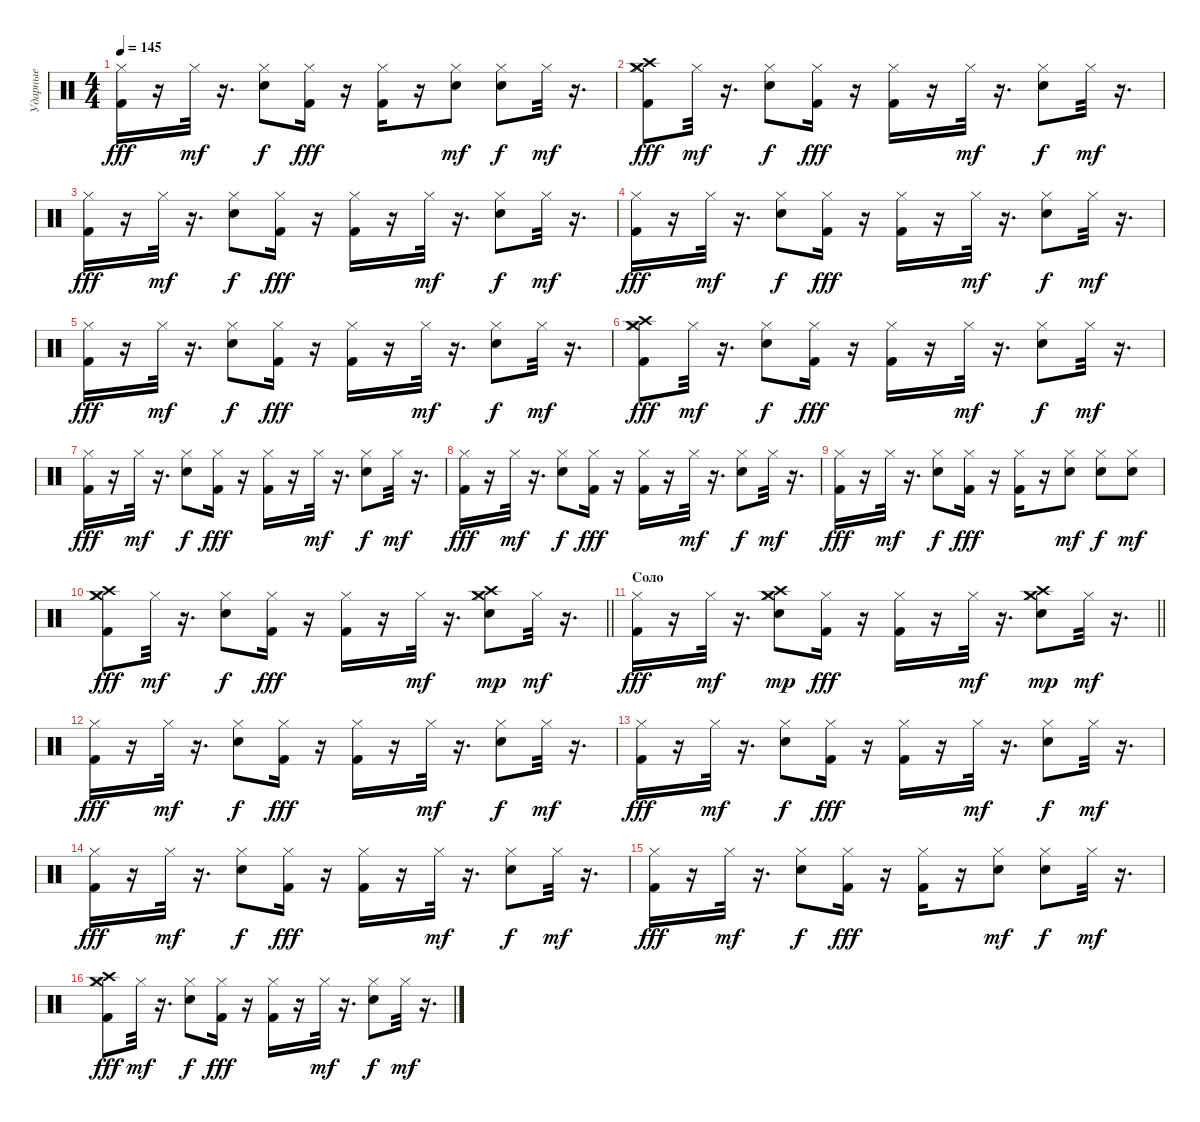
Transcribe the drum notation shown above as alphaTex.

\track ("Ударные" "Ударные") {instrument percussion}
\staff {score}
\articulation defaults
\ts (4 4)
\tempo 145
\clef neutral
\ks c
("Hi-Hat (closed)" "Kick (hit) 2").16{dy fff} r.16 "Hi-Hat (closed)".32{dy mf} r.16{d} ("Snare (hit) 2" "Hi-Hat (closed)").8{dy f} ("Hi-Hat (closed)" "Kick (hit) 2").16{dy fff} r.16 ("Hi-Hat (closed)" "Kick (hit) 2").16 r.16 ("Snare (hit) 2" "Hi-Hat (closed)").8{dy mf} ("Snare (hit) 2" "Hi-Hat (closed)").8{dy f} "Hi-Hat (closed)".32{dy mf} r.16{d} |
("Hi-Hat (closed)" "Crash high (hit)" "Crash medium (hit)" "Kick (hit) 2").8{dy fff} "Hi-Hat (closed)".32{dy mf} r.16{d} ("Snare (hit) 2" "Hi-Hat (closed)").8{dy f} ("Hi-Hat (closed)" "Kick (hit) 2").16{dy fff} r.16 ("Hi-Hat (closed)" "Kick (hit) 2").16 r.16 "Hi-Hat (closed)".32{dy mf} r.16{d} ("Snare (hit) 2" "Hi-Hat (closed)").8{dy f} "Hi-Hat (closed)".32{dy mf} r.16{d} |
("Hi-Hat (closed)" "Kick (hit) 2").16{dy fff} r.16 "Hi-Hat (closed)".32{dy mf} r.16{d} ("Snare (hit) 2" "Hi-Hat (closed)").8{dy f} ("Hi-Hat (closed)" "Kick (hit) 2").16{dy fff} r.16 ("Hi-Hat (closed)" "Kick (hit) 2").16 r.16 "Hi-Hat (closed)".32{dy mf} r.16{d} ("Snare (hit) 2" "Hi-Hat (closed)").8{dy f} "Hi-Hat (closed)".32{dy mf} r.16{d} |
("Hi-Hat (closed)" "Kick (hit) 2").16{dy fff} r.16 "Hi-Hat (closed)".32{dy mf} r.16{d} ("Snare (hit) 2" "Hi-Hat (closed)").8{dy f} ("Hi-Hat (closed)" "Kick (hit) 2").16{dy fff} r.16 ("Hi-Hat (closed)" "Kick (hit) 2").16 r.16 "Hi-Hat (closed)".32{dy mf} r.16{d} ("Snare (hit) 2" "Hi-Hat (closed)").8{dy f} "Hi-Hat (closed)".32{dy mf} r.16{d} |
("Hi-Hat (closed)" "Kick (hit) 2").16{dy fff} r.16 "Hi-Hat (closed)".32{dy mf} r.16{d} ("Snare (hit) 2" "Hi-Hat (closed)").8{dy f} ("Hi-Hat (closed)" "Kick (hit) 2").16{dy fff} r.16 ("Hi-Hat (closed)" "Kick (hit) 2").16 r.16 "Hi-Hat (closed)".32{dy mf} r.16{d} ("Snare (hit) 2" "Hi-Hat (closed)").8{dy f} "Hi-Hat (closed)".32{dy mf} r.16{d} |
("Hi-Hat (closed)" "Crash high (hit)" "Crash medium (hit)" "Kick (hit) 2").8{dy fff} "Hi-Hat (closed)".32{dy mf} r.16{d} ("Snare (hit) 2" "Hi-Hat (closed)").8{dy f} ("Hi-Hat (closed)" "Kick (hit) 2").16{dy fff} r.16 ("Hi-Hat (closed)" "Kick (hit) 2").16 r.16 "Hi-Hat (closed)".32{dy mf} r.16{d} ("Snare (hit) 2" "Hi-Hat (closed)").8{dy f} "Hi-Hat (closed)".32{dy mf} r.16{d} |
("Hi-Hat (closed)" "Kick (hit) 2").16{dy fff} r.16 "Hi-Hat (closed)".32{dy mf} r.16{d} ("Snare (hit) 2" "Hi-Hat (closed)").8{dy f} ("Hi-Hat (closed)" "Kick (hit) 2").16{dy fff} r.16 ("Hi-Hat (closed)" "Kick (hit) 2").16 r.16 "Hi-Hat (closed)".32{dy mf} r.16{d} ("Snare (hit) 2" "Hi-Hat (closed)").8{dy f} "Hi-Hat (closed)".32{dy mf} r.16{d} |
("Hi-Hat (closed)" "Kick (hit) 2").16{dy fff} r.16 "Hi-Hat (closed)".32{dy mf} r.16{d} ("Snare (hit) 2" "Hi-Hat (closed)").8{dy f} ("Hi-Hat (closed)" "Kick (hit) 2").16{dy fff} r.16 ("Hi-Hat (closed)" "Kick (hit) 2").16 r.16 "Hi-Hat (closed)".32{dy mf} r.16{d} ("Snare (hit) 2" "Hi-Hat (closed)").8{dy f} "Hi-Hat (closed)".32{dy mf} r.16{d} |
("Hi-Hat (closed)" "Kick (hit) 2").16{dy fff} r.16 "Hi-Hat (closed)".32{dy mf} r.16{d} ("Snare (hit) 2" "Hi-Hat (closed)").8{dy f} ("Hi-Hat (closed)" "Kick (hit) 2").16{dy fff} r.16 ("Hi-Hat (closed)" "Kick (hit) 2").16 r.16 ("Snare (hit) 2" "Hi-Hat (closed)").8{dy mf} ("Snare (hit) 2" "Hi-Hat (closed)").8{dy f} ("Snare (hit) 2" "Hi-Hat (closed)").8{dy mf} |
\barLineRight lightlight
("Hi-Hat (closed)" "Crash high (hit)" "Crash medium (hit)" "Kick (hit) 2").8{dy fff} "Hi-Hat (closed)".32{dy mf} r.16{d} ("Snare (hit) 2" "Hi-Hat (closed)").8{dy f} ("Hi-Hat (closed)" "Kick (hit) 2").16{dy fff} r.16 ("Hi-Hat (closed)" "Kick (hit) 2").16 r.16 "Hi-Hat (closed)".32{dy mf} r.16{d} ("Snare (hit) 2" "Hi-Hat (closed)" "Crash high (hit)" "Crash medium (hit)").8{dy mp} "Hi-Hat (closed)".32{dy mf} r.16{d} |
\section ("" "Соло")
\barLineRight lightlight
("Hi-Hat (closed)" "Kick (hit) 2").16{dy fff} r.16 "Hi-Hat (closed)".32{dy mf} r.16{d} ("Snare (hit) 2" "Hi-Hat (closed)" "Crash high (hit)" "Crash medium (hit)").8{dy mp} ("Hi-Hat (closed)" "Kick (hit) 2").16{dy fff} r.16 ("Hi-Hat (closed)" "Kick (hit) 2").16 r.16 "Hi-Hat (closed)".32{dy mf} r.16{d} ("Snare (hit) 2" "Hi-Hat (closed)" "Crash high (hit)" "Crash medium (hit)").8{dy mp} "Hi-Hat (closed)".32{dy mf} r.16{d} |
("Hi-Hat (closed)" "Kick (hit) 2").16{dy fff} r.16 "Hi-Hat (closed)".32{dy mf} r.16{d} ("Snare (hit) 2" "Hi-Hat (closed)").8{dy f} ("Hi-Hat (closed)" "Kick (hit) 2").16{dy fff} r.16 ("Hi-Hat (closed)" "Kick (hit) 2").16 r.16 "Hi-Hat (closed)".32{dy mf} r.16{d} ("Snare (hit) 2" "Hi-Hat (closed)").8{dy f} "Hi-Hat (closed)".32{dy mf} r.16{d} |
("Hi-Hat (closed)" "Kick (hit) 2").16{dy fff} r.16 "Hi-Hat (closed)".32{dy mf} r.16{d} ("Snare (hit) 2" "Hi-Hat (closed)").8{dy f} ("Hi-Hat (closed)" "Kick (hit) 2").16{dy fff} r.16 ("Hi-Hat (closed)" "Kick (hit) 2").16 r.16 "Hi-Hat (closed)".32{dy mf} r.16{d} ("Snare (hit) 2" "Hi-Hat (closed)").8{dy f} "Hi-Hat (closed)".32{dy mf} r.16{d} |
("Hi-Hat (closed)" "Kick (hit) 2").16{dy fff} r.16 "Hi-Hat (closed)".32{dy mf} r.16{d} ("Snare (hit) 2" "Hi-Hat (closed)").8{dy f} ("Hi-Hat (closed)" "Kick (hit) 2").16{dy fff} r.16 ("Hi-Hat (closed)" "Kick (hit) 2").16 r.16 "Hi-Hat (closed)".32{dy mf} r.16{d} ("Snare (hit) 2" "Hi-Hat (closed)").8{dy f} "Hi-Hat (closed)".32{dy mf} r.16{d} |
("Hi-Hat (closed)" "Kick (hit) 2").16{dy fff} r.16 "Hi-Hat (closed)".32{dy mf} r.16{d} ("Snare (hit) 2" "Hi-Hat (closed)").8{dy f} ("Hi-Hat (closed)" "Kick (hit) 2").16{dy fff} r.16 ("Hi-Hat (closed)" "Kick (hit) 2").16 r.16 ("Snare (hit) 2" "Hi-Hat (closed)").8{dy mf} ("Snare (hit) 2" "Hi-Hat (closed)").8{dy f} "Hi-Hat (closed)".32{dy mf} r.16{d} |
("Hi-Hat (closed)" "Crash high (hit)" "Crash medium (hit)" "Kick (hit) 2").8{dy fff} "Hi-Hat (closed)".32{dy mf} r.16{d} ("Snare (hit) 2" "Hi-Hat (closed)").8{dy f} ("Hi-Hat (closed)" "Kick (hit) 2").16{dy fff} r.16 ("Hi-Hat (closed)" "Kick (hit) 2").16 r.16 "Hi-Hat (closed)".32{dy mf} r.16{d} ("Snare (hit) 2" "Hi-Hat (closed)").8{dy f} "Hi-Hat (closed)".32{dy mf} r.16{d}
